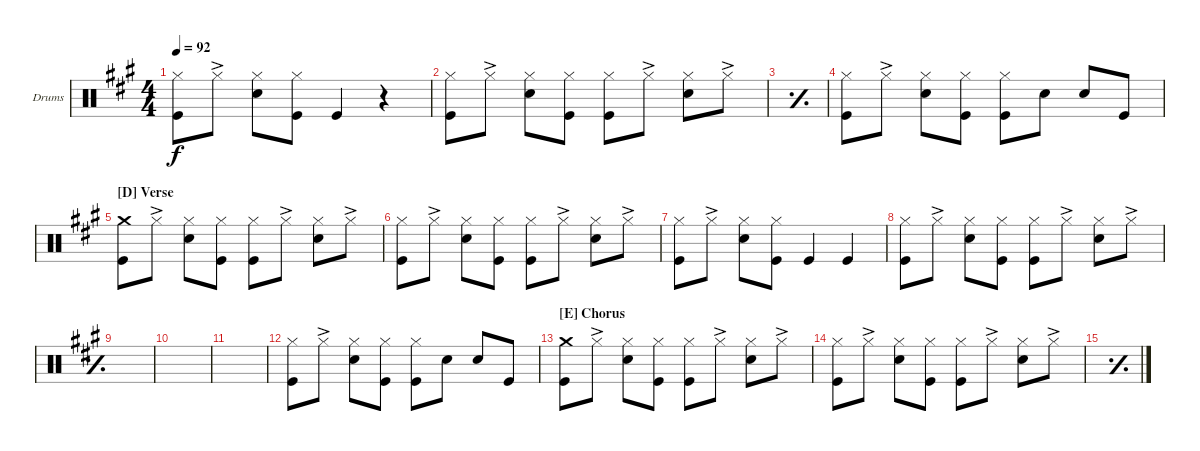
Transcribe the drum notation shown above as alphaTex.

\defaultSystemsLayout 4
\bracketExtendMode groupsimilarinstruments
\firstSystemTrackNameOrientation horizontal
\otherSystemsTrackNameOrientation horizontal
\track ("Matt Helders (Drums)" "Drums") {instrument percussion}
\staff {score}
\articulation defaults
\ts (4 4)
\tempo 92
\clef neutral
\ks a
("Kick (hit)" "Hi-Hat (closed)").8{dy f} "Hi-Hat (closed)"{ac}.8 ("Snare (hit) 2" "Hi-Hat (closed)").8 ("Hi-Hat (closed)" "Kick (hit)").8 "Kick (hit)".4 r.4 |
("Kick (hit)" "Hi-Hat (closed)").8 "Hi-Hat (closed)"{ac}.8 ("Snare (hit) 2" "Hi-Hat (closed)").8 ("Hi-Hat (closed)" "Kick (hit)").8 ("Kick (hit)" "Hi-Hat (closed)").8 "Hi-Hat (closed)"{ac}.8 ("Snare (hit) 2" "Hi-Hat (closed)").8 "Hi-Hat (closed)"{ac}.8 |
\simile simple
|
\simile none
("Kick (hit)" "Hi-Hat (closed)").8 "Hi-Hat (closed)"{ac}.8 ("Snare (hit) 2" "Hi-Hat (closed)").8 ("Hi-Hat (closed)" "Kick (hit)").8 ("Kick (hit)" "Hi-Hat (closed)").8 "Snare (hit) 2".8 "Snare (hit) 2".8 "Kick (hit)".8 |
\section ("D" "Verse")
("Kick (hit)" "Crash medium (hit)").8 "Hi-Hat (closed)"{ac}.8 ("Snare (hit) 2" "Hi-Hat (closed)").8 ("Hi-Hat (closed)" "Kick (hit)").8 ("Kick (hit)" "Hi-Hat (closed)").8 "Hi-Hat (closed)"{ac}.8 ("Snare (hit) 2" "Hi-Hat (closed)").8 "Hi-Hat (closed)"{ac}.8 |
("Kick (hit)" "Hi-Hat (closed)").8 "Hi-Hat (closed)"{ac}.8 ("Snare (hit) 2" "Hi-Hat (closed)").8 ("Hi-Hat (closed)" "Kick (hit)").8 ("Kick (hit)" "Hi-Hat (closed)").8 "Hi-Hat (closed)"{ac}.8 ("Snare (hit) 2" "Hi-Hat (closed)").8 "Hi-Hat (closed)"{ac}.8 |
("Kick (hit)" "Hi-Hat (closed)").8 "Hi-Hat (closed)"{ac}.8 ("Snare (hit) 2" "Hi-Hat (closed)").8 ("Hi-Hat (closed)" "Kick (hit)").8 "Kick (hit)".4 "Kick (hit)".4 |
("Kick (hit)" "Hi-Hat (closed)").8 "Hi-Hat (closed)"{ac}.8 ("Snare (hit) 2" "Hi-Hat (closed)").8 ("Hi-Hat (closed)" "Kick (hit)").8 ("Kick (hit)" "Hi-Hat (closed)").8 "Hi-Hat (closed)"{ac}.8 ("Snare (hit) 2" "Hi-Hat (closed)").8 "Hi-Hat (closed)"{ac}.8 |
\simile simple
|
|
|
\simile none
("Kick (hit)" "Hi-Hat (closed)").8 "Hi-Hat (closed)"{ac}.8 ("Snare (hit) 2" "Hi-Hat (closed)").8 ("Hi-Hat (closed)" "Kick (hit)").8 ("Kick (hit)" "Hi-Hat (closed)").8 "Snare (hit) 2".8 "Snare (hit) 2".8 "Kick (hit)".8 |
\section ("E" "Chorus")
("Kick (hit)" "Crash medium (hit)").8 "Hi-Hat (closed)"{ac}.8 ("Snare (hit) 2" "Hi-Hat (closed)").8 ("Hi-Hat (closed)" "Kick (hit)").8 ("Kick (hit)" "Hi-Hat (closed)").8 "Hi-Hat (closed)"{ac}.8 ("Snare (hit) 2" "Hi-Hat (closed)").8 "Hi-Hat (closed)"{ac}.8 |
("Kick (hit)" "Hi-Hat (closed)").8 "Hi-Hat (closed)"{ac}.8 ("Snare (hit) 2" "Hi-Hat (closed)").8 ("Hi-Hat (closed)" "Kick (hit)").8 ("Kick (hit)" "Hi-Hat (closed)").8 "Hi-Hat (closed)"{ac}.8 ("Snare (hit) 2" "Hi-Hat (closed)").8 "Hi-Hat (closed)"{ac}.8 |
\simile simple
